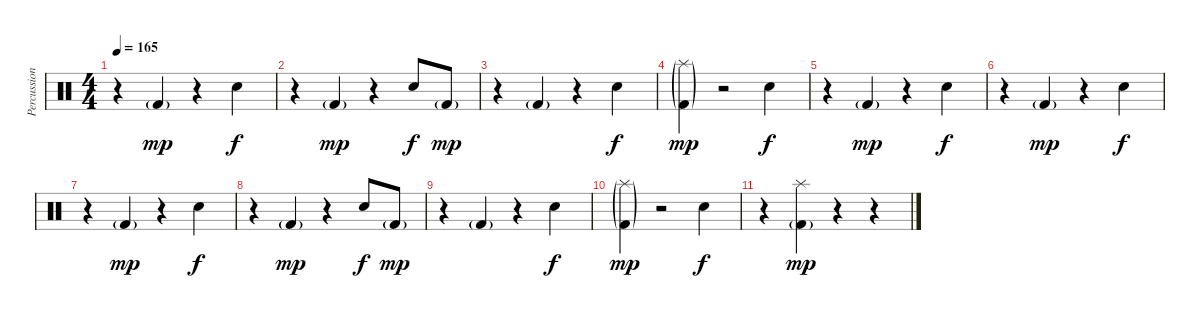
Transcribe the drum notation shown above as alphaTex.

\track ("Percussions" "Percussion") {instrument percussion}
\staff {score}
\articulation defaults
\ts (4 4)
\tempo 165
\clef neutral
\ks c
r.4{dy f} "Kick (hit) 2"{g}.4{dy mp} r.4 "Electric Snare (hit)".4{dy f} |
r.4 "Kick (hit) 2"{g}.4{dy mp} r.4 "Electric Snare (hit)".8{dy f} "Kick (hit) 2"{g}.8{dy mp} |
r.4 "Kick (hit) 2"{g}.4 r.4 "Electric Snare (hit)".4{dy f} |
("Splash (hit)"{g} "Kick (hit) 2"{g}).4{dy mp} r.2 "Electric Snare (hit)".4{dy f} |
r.4 "Kick (hit) 2"{g}.4{dy mp} r.4 "Electric Snare (hit)".4{dy f} |
r.4 "Kick (hit) 2"{g}.4{dy mp} r.4 "Electric Snare (hit)".4{dy f} |
r.4 "Kick (hit) 2"{g}.4{dy mp} r.4 "Electric Snare (hit)".4{dy f} |
r.4 "Kick (hit) 2"{g}.4{dy mp} r.4 "Electric Snare (hit)".8{dy f} "Kick (hit) 2"{g}.8{dy mp} |
r.4 "Kick (hit) 2"{g}.4 r.4 "Electric Snare (hit)".4{dy f} |
("Splash (hit)"{g} "Kick (hit) 2"{g}).4{dy mp} r.2 "Electric Snare (hit)".4{dy f} |
r.4 ("Kick (hit) 2"{g} "Splash (hit)").4{dy mp} r.4 r.4
